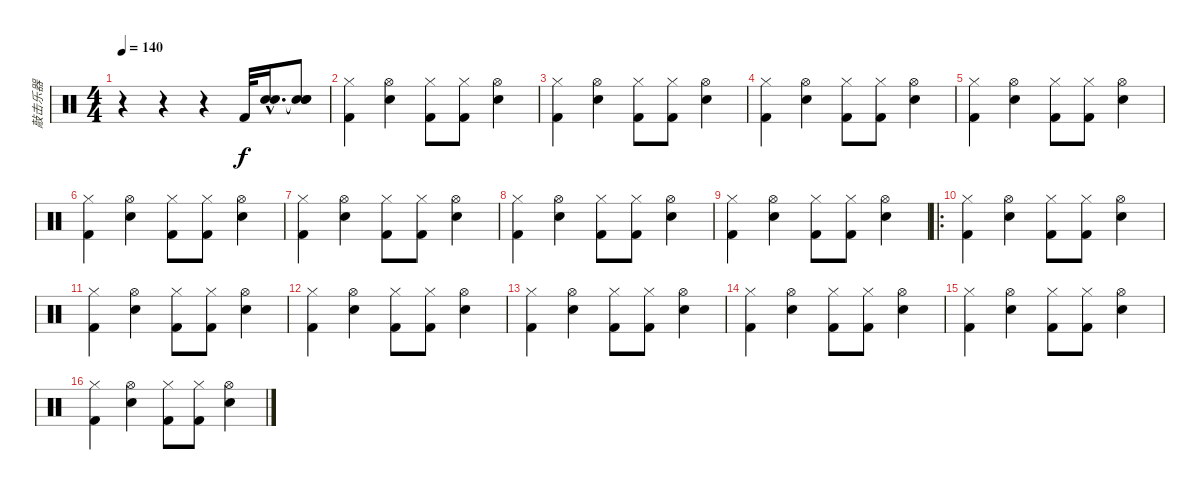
\track ("敲击乐器" "敲击乐器") {instrument percussion}
\staff {score}
\articulation defaults
\ts (4 4)
\tempo 140
\clef neutral
\ks c
r.4{dy f} r.4 r.4 "Kick (hit) 2".32{volume 16} ("Snare (hit) 2"{hac} "Electric Snare (hit)"{hac}).16{d} ("Snare (hit)"{t} "Snare (hit)"{t} "Snare (hit)").8 |
("Hi-Hat (closed)" "Kick (hit) 2").4{volume 12} ("Hi-Hat (open)" "Electric Snare (hit)").4 ("Hi-Hat (closed)" "Kick (hit) 2").8 ("Hi-Hat (closed)" "Kick (hit) 2").8 ("Hi-Hat (open)" "Electric Snare (hit)").4 |
("Hi-Hat (closed)" "Kick (hit) 2").4 ("Hi-Hat (open)" "Electric Snare (hit)").4 ("Hi-Hat (closed)" "Kick (hit) 2").8 ("Hi-Hat (closed)" "Kick (hit) 2").8 ("Hi-Hat (open)" "Electric Snare (hit)").4 |
("Hi-Hat (closed)" "Kick (hit) 2").4 ("Hi-Hat (open)" "Electric Snare (hit)").4 ("Hi-Hat (closed)" "Kick (hit) 2").8 ("Hi-Hat (closed)" "Kick (hit) 2").8 ("Hi-Hat (open)" "Electric Snare (hit)").4 |
("Hi-Hat (closed)" "Kick (hit) 2").4 ("Hi-Hat (open)" "Electric Snare (hit)").4 ("Hi-Hat (closed)" "Kick (hit) 2").8 ("Hi-Hat (closed)" "Kick (hit) 2").8 ("Hi-Hat (open)" "Electric Snare (hit)").4 |
("Hi-Hat (closed)" "Kick (hit) 2").4 ("Hi-Hat (open)" "Electric Snare (hit)").4 ("Hi-Hat (closed)" "Kick (hit) 2").8 ("Hi-Hat (closed)" "Kick (hit) 2").8 ("Hi-Hat (open)" "Electric Snare (hit)").4 |
("Hi-Hat (closed)" "Kick (hit) 2").4 ("Hi-Hat (open)" "Electric Snare (hit)").4 ("Hi-Hat (closed)" "Kick (hit) 2").8 ("Hi-Hat (closed)" "Kick (hit) 2").8 ("Hi-Hat (open)" "Electric Snare (hit)").4 |
("Hi-Hat (closed)" "Kick (hit) 2").4 ("Hi-Hat (open)" "Electric Snare (hit)").4 ("Hi-Hat (closed)" "Kick (hit) 2").8 ("Hi-Hat (closed)" "Kick (hit) 2").8 ("Hi-Hat (open)" "Electric Snare (hit)").4 |
("Hi-Hat (closed)" "Kick (hit) 2").4 ("Hi-Hat (open)" "Electric Snare (hit)").4 ("Hi-Hat (closed)" "Kick (hit) 2").8 ("Hi-Hat (closed)" "Kick (hit) 2").8 ("Hi-Hat (open)" "Electric Snare (hit)").4 |
\ro
("Hi-Hat (closed)" "Kick (hit) 2").4 ("Hi-Hat (open)" "Electric Snare (hit)").4 ("Hi-Hat (closed)" "Kick (hit) 2").8 ("Hi-Hat (closed)" "Kick (hit) 2").8 ("Hi-Hat (open)" "Electric Snare (hit)").4 |
("Hi-Hat (closed)" "Kick (hit) 2").4 ("Hi-Hat (open)" "Electric Snare (hit)").4 ("Hi-Hat (closed)" "Kick (hit) 2").8 ("Hi-Hat (closed)" "Kick (hit) 2").8 ("Hi-Hat (open)" "Electric Snare (hit)").4 |
("Hi-Hat (closed)" "Kick (hit) 2").4 ("Hi-Hat (open)" "Electric Snare (hit)").4 ("Hi-Hat (closed)" "Kick (hit) 2").8 ("Hi-Hat (closed)" "Kick (hit) 2").8 ("Hi-Hat (open)" "Electric Snare (hit)").4 |
("Hi-Hat (closed)" "Kick (hit) 2").4 ("Hi-Hat (open)" "Electric Snare (hit)").4 ("Hi-Hat (closed)" "Kick (hit) 2").8 ("Hi-Hat (closed)" "Kick (hit) 2").8 ("Hi-Hat (open)" "Electric Snare (hit)").4 |
("Hi-Hat (closed)" "Kick (hit) 2").4 ("Hi-Hat (open)" "Electric Snare (hit)").4 ("Hi-Hat (closed)" "Kick (hit) 2").8 ("Hi-Hat (closed)" "Kick (hit) 2").8 ("Hi-Hat (open)" "Electric Snare (hit)").4 |
("Hi-Hat (closed)" "Kick (hit) 2").4 ("Hi-Hat (open)" "Electric Snare (hit)").4 ("Hi-Hat (closed)" "Kick (hit) 2").8 ("Hi-Hat (closed)" "Kick (hit) 2").8 ("Hi-Hat (open)" "Electric Snare (hit)").4 |
("Hi-Hat (closed)" "Kick (hit) 2").4 ("Hi-Hat (open)" "Electric Snare (hit)").4 ("Hi-Hat (closed)" "Kick (hit) 2").8 ("Hi-Hat (closed)" "Kick (hit) 2").8 ("Hi-Hat (open)" "Electric Snare (hit)").4
